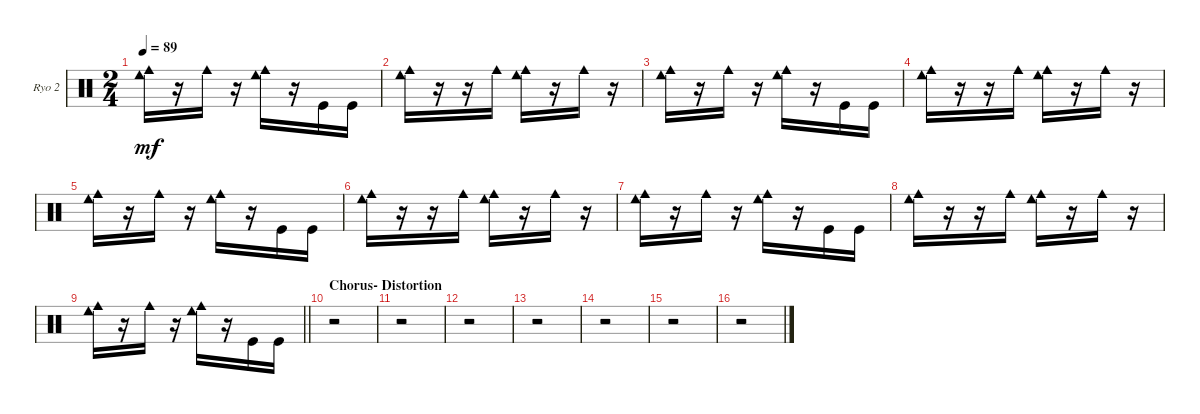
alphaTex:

\bracketExtendMode groupsimilarinstruments
\firstSystemTrackNameOrientation horizontal
\otherSystemsTrackNameOrientation horizontal
\track ("Ryo2 [Additional Drums]" "Ryo 2") {instrument percussion}
\staff {score}
\articulation defaults
\ts (2 4)
\tempo 89
\clef neutral
\ks c
("Cowbell low (hit)" "Cowbell medium (hit)").16{dy mf} r.16 "Cowbell medium (hit)".16 r.16 ("Cowbell medium (hit)" "Cowbell low (hit)").16 r.16 "Kick (hit)".16 "Kick (hit)".16 |
("Cowbell low (hit)" "Cowbell medium (hit)").16 r.16 r.16 "Cowbell medium (hit)".16 ("Cowbell medium (hit)" "Cowbell low (hit)").16 r.16 "Cowbell medium (hit)".16 r.16 |
("Cowbell low (hit)" "Cowbell medium (hit)").16 r.16 "Cowbell medium (hit)".16 r.16 ("Cowbell medium (hit)" "Cowbell low (hit)").16 r.16 "Kick (hit)".16 "Kick (hit)".16 |
("Cowbell low (hit)" "Cowbell medium (hit)").16 r.16 r.16 "Cowbell medium (hit)".16 ("Cowbell medium (hit)" "Cowbell low (hit)").16 r.16 "Cowbell medium (hit)".16 r.16 |
("Cowbell low (hit)" "Cowbell medium (hit)").16 r.16 "Cowbell medium (hit)".16 r.16 ("Cowbell medium (hit)" "Cowbell low (hit)").16 r.16 "Kick (hit)".16 "Kick (hit)".16 |
("Cowbell low (hit)" "Cowbell medium (hit)").16 r.16 r.16 "Cowbell medium (hit)".16 ("Cowbell medium (hit)" "Cowbell low (hit)").16 r.16 "Cowbell medium (hit)".16 r.16 |
("Cowbell low (hit)" "Cowbell medium (hit)").16 r.16 "Cowbell medium (hit)".16 r.16 ("Cowbell medium (hit)" "Cowbell low (hit)").16 r.16 "Kick (hit)".16 "Kick (hit)".16 |
("Cowbell low (hit)" "Cowbell medium (hit)").16 r.16 r.16 "Cowbell medium (hit)".16 ("Cowbell medium (hit)" "Cowbell low (hit)").16 r.16 "Cowbell medium (hit)".16 r.16 |
\barLineRight lightlight
("Cowbell low (hit)" "Cowbell medium (hit)").16 r.16 "Cowbell medium (hit)".16 r.16 ("Cowbell medium (hit)" "Cowbell low (hit)").16 r.16 "Kick (hit)".16 "Kick (hit)".16 |
\section ("" "Chorus- Distortion")
\scale
0.365591 r.2 |
\scale
0.321839 r.2 |
\scale
0.321839 r.2 |
\scale
0.356322 r.2 |
r.2 |
r.2 |
r.2
